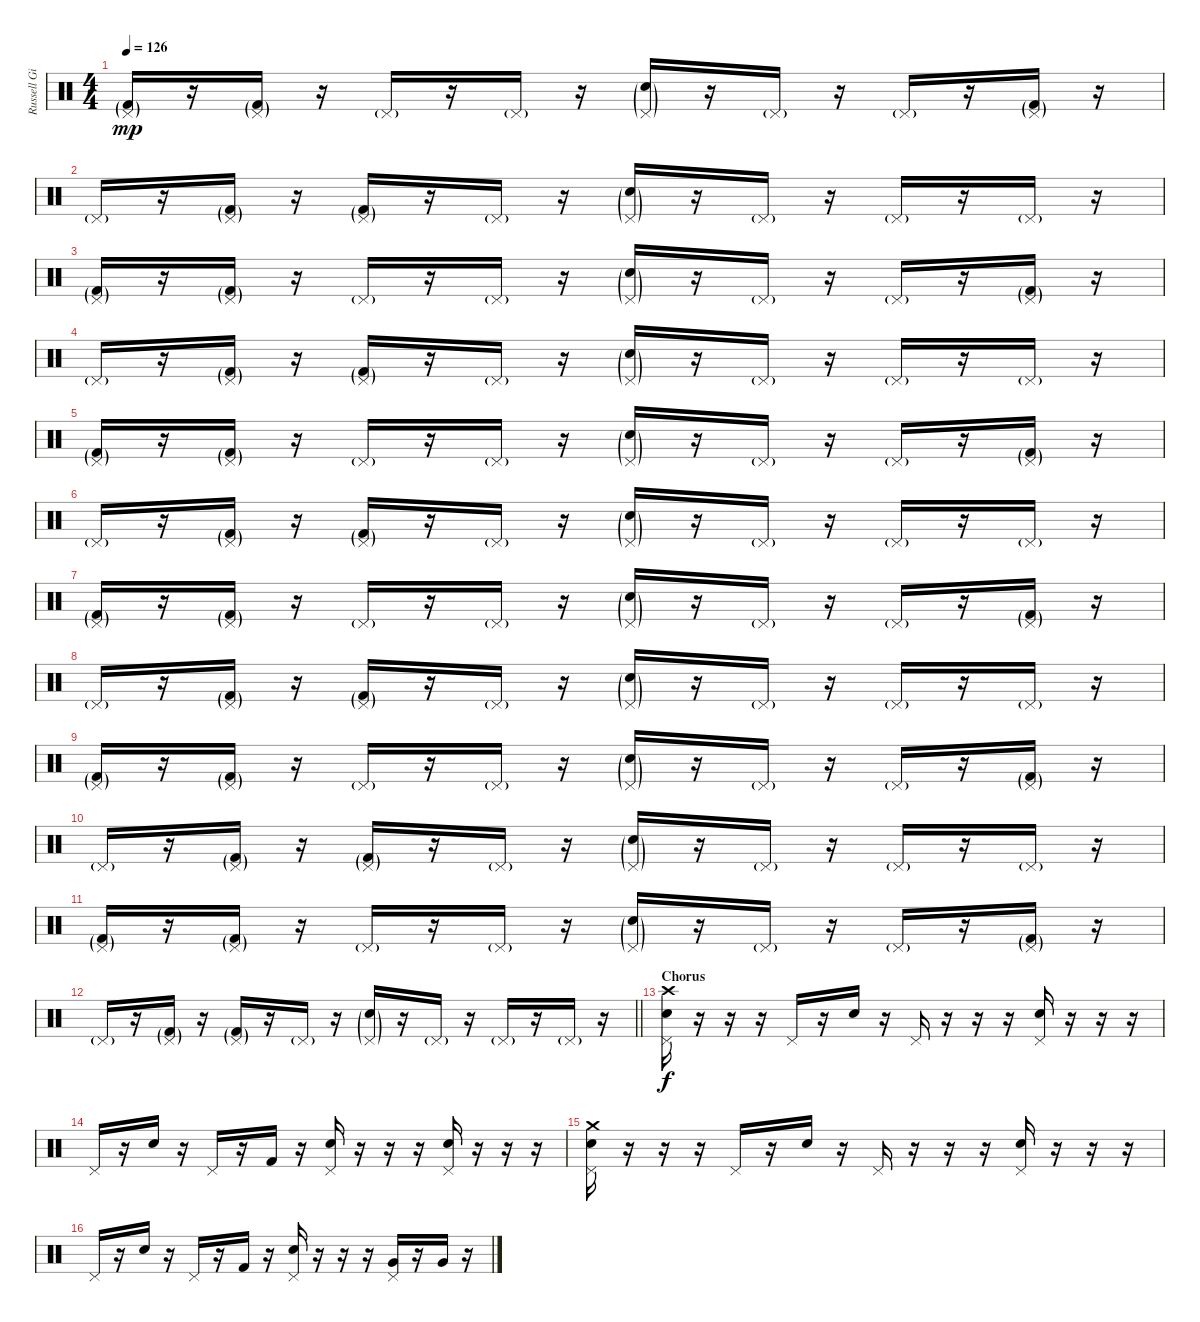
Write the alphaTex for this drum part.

\track ("Russell Gilbrook - Drums" "Russell Gi") {instrument percussion}
\staff {score}
\articulation defaults
\ts (4 4)
\tempo 126
\clef neutral
\ks c
("Pedal Hi-Hat (hit)"{g} "Kick (hit) 2"{g}).16{dy mp} r.16 ("Pedal Hi-Hat (hit)"{g} "Kick (hit) 2"{g}).16 r.16 "Pedal Hi-Hat (hit)"{g}.16 r.16 "Pedal Hi-Hat (hit)"{g}.16 r.16 ("Pedal Hi-Hat (hit)"{g} "Snare (hit) 2"{g}).16 r.16 "Pedal Hi-Hat (hit)"{g}.16 r.16 "Pedal Hi-Hat (hit)"{g}.16 r.16 ("Pedal Hi-Hat (hit)"{g} "Kick (hit) 2"{g}).16 r.16 |
"Pedal Hi-Hat (hit)"{g}.16 r.16 ("Pedal Hi-Hat (hit)"{g} "Kick (hit) 2"{g}).16 r.16 ("Pedal Hi-Hat (hit)"{g} "Kick (hit) 2"{g}).16 r.16 "Pedal Hi-Hat (hit)"{g}.16 r.16 ("Pedal Hi-Hat (hit)"{g} "Snare (hit) 2"{g}).16 r.16 "Pedal Hi-Hat (hit)"{g}.16 r.16 "Pedal Hi-Hat (hit)"{g}.16 r.16 "Pedal Hi-Hat (hit)"{g}.16 r.16 |
("Pedal Hi-Hat (hit)"{g} "Kick (hit) 2"{g}).16 r.16 ("Pedal Hi-Hat (hit)"{g} "Kick (hit) 2"{g}).16 r.16 "Pedal Hi-Hat (hit)"{g}.16 r.16 "Pedal Hi-Hat (hit)"{g}.16 r.16 ("Pedal Hi-Hat (hit)"{g} "Snare (hit) 2"{g}).16 r.16 "Pedal Hi-Hat (hit)"{g}.16 r.16 "Pedal Hi-Hat (hit)"{g}.16 r.16 ("Pedal Hi-Hat (hit)"{g} "Kick (hit) 2"{g}).16 r.16 |
"Pedal Hi-Hat (hit)"{g}.16 r.16 ("Pedal Hi-Hat (hit)"{g} "Kick (hit) 2"{g}).16 r.16 ("Pedal Hi-Hat (hit)"{g} "Kick (hit) 2"{g}).16 r.16 "Pedal Hi-Hat (hit)"{g}.16 r.16 ("Pedal Hi-Hat (hit)"{g} "Snare (hit) 2"{g}).16 r.16 "Pedal Hi-Hat (hit)"{g}.16 r.16 "Pedal Hi-Hat (hit)"{g}.16 r.16 "Pedal Hi-Hat (hit)"{g}.16 r.16 |
("Pedal Hi-Hat (hit)"{g} "Kick (hit) 2"{g}).16 r.16 ("Pedal Hi-Hat (hit)"{g} "Kick (hit) 2"{g}).16 r.16 "Pedal Hi-Hat (hit)"{g}.16 r.16 "Pedal Hi-Hat (hit)"{g}.16 r.16 ("Pedal Hi-Hat (hit)"{g} "Snare (hit) 2"{g}).16 r.16 "Pedal Hi-Hat (hit)"{g}.16 r.16 "Pedal Hi-Hat (hit)"{g}.16 r.16 ("Pedal Hi-Hat (hit)"{g} "Kick (hit) 2"{g}).16 r.16 |
"Pedal Hi-Hat (hit)"{g}.16 r.16 ("Pedal Hi-Hat (hit)"{g} "Kick (hit) 2"{g}).16 r.16 ("Pedal Hi-Hat (hit)"{g} "Kick (hit) 2"{g}).16 r.16 "Pedal Hi-Hat (hit)"{g}.16 r.16 ("Pedal Hi-Hat (hit)"{g} "Snare (hit) 2"{g}).16 r.16 "Pedal Hi-Hat (hit)"{g}.16 r.16 "Pedal Hi-Hat (hit)"{g}.16 r.16 "Pedal Hi-Hat (hit)"{g}.16 r.16 |
("Pedal Hi-Hat (hit)"{g} "Kick (hit) 2"{g}).16 r.16 ("Pedal Hi-Hat (hit)"{g} "Kick (hit) 2"{g}).16 r.16 "Pedal Hi-Hat (hit)"{g}.16 r.16 "Pedal Hi-Hat (hit)"{g}.16 r.16 ("Pedal Hi-Hat (hit)"{g} "Snare (hit) 2"{g}).16 r.16 "Pedal Hi-Hat (hit)"{g}.16 r.16 "Pedal Hi-Hat (hit)"{g}.16 r.16 ("Pedal Hi-Hat (hit)"{g} "Kick (hit) 2"{g}).16 r.16 |
"Pedal Hi-Hat (hit)"{g}.16 r.16 ("Pedal Hi-Hat (hit)"{g} "Kick (hit) 2"{g}).16 r.16 ("Pedal Hi-Hat (hit)"{g} "Kick (hit) 2"{g}).16 r.16 "Pedal Hi-Hat (hit)"{g}.16 r.16 ("Pedal Hi-Hat (hit)"{g} "Snare (hit) 2"{g}).16 r.16 "Pedal Hi-Hat (hit)"{g}.16 r.16 "Pedal Hi-Hat (hit)"{g}.16 r.16 "Pedal Hi-Hat (hit)"{g}.16 r.16 |
("Pedal Hi-Hat (hit)"{g} "Kick (hit) 2"{g}).16 r.16 ("Pedal Hi-Hat (hit)"{g} "Kick (hit) 2"{g}).16 r.16 "Pedal Hi-Hat (hit)"{g}.16 r.16 "Pedal Hi-Hat (hit)"{g}.16 r.16 ("Pedal Hi-Hat (hit)"{g} "Snare (hit) 2"{g}).16 r.16 "Pedal Hi-Hat (hit)"{g}.16 r.16 "Pedal Hi-Hat (hit)"{g}.16 r.16 ("Pedal Hi-Hat (hit)"{g} "Kick (hit) 2"{g}).16 r.16 |
"Pedal Hi-Hat (hit)"{g}.16 r.16 ("Pedal Hi-Hat (hit)"{g} "Kick (hit) 2"{g}).16 r.16 ("Pedal Hi-Hat (hit)"{g} "Kick (hit) 2"{g}).16 r.16 "Pedal Hi-Hat (hit)"{g}.16 r.16 ("Pedal Hi-Hat (hit)"{g} "Snare (hit) 2"{g}).16 r.16 "Pedal Hi-Hat (hit)"{g}.16 r.16 "Pedal Hi-Hat (hit)"{g}.16 r.16 "Pedal Hi-Hat (hit)"{g}.16 r.16 |
("Pedal Hi-Hat (hit)"{g} "Kick (hit) 2"{g}).16 r.16 ("Pedal Hi-Hat (hit)"{g} "Kick (hit) 2"{g}).16 r.16 "Pedal Hi-Hat (hit)"{g}.16 r.16 "Pedal Hi-Hat (hit)"{g}.16 r.16 ("Pedal Hi-Hat (hit)"{g} "Snare (hit) 2"{g}).16 r.16 "Pedal Hi-Hat (hit)"{g}.16 r.16 "Pedal Hi-Hat (hit)"{g}.16 r.16 ("Pedal Hi-Hat (hit)"{g} "Kick (hit) 2"{g}).16 r.16 |
\barLineRight lightlight "Pedal Hi-Hat (hit)"{g}.16
r.16 ("Pedal Hi-Hat (hit)"{g} "Kick (hit) 2"{g}).16 r.16 ("Pedal Hi-Hat (hit)"{g} "Kick (hit) 2"{g}).16 r.16 "Pedal Hi-Hat (hit)"{g}.16 r.16 ("Pedal Hi-Hat (hit)"{g} "Snare (hit) 2"{g}).16 r.16 "Pedal Hi-Hat (hit)"{g}.16 r.16 "Pedal Hi-Hat (hit)"{g}.16 r.16 "Pedal Hi-Hat (hit)"{g}.16 r.16 |
\section ("" "Chorus")
("Crash high (hit)" "Pedal Hi-Hat (hit)" "Snare (hit) 2").16{dy f} r.16 r.16 r.16 "Pedal Hi-Hat (hit)".16 r.16 "Snare (hit) 2".16 r.16 "Pedal Hi-Hat (hit)".16 r.16 r.16 r.16 ("Pedal Hi-Hat (hit)" "Snare (hit) 2").16 r.16 r.16 r.16 |
"Pedal Hi-Hat (hit)".16 r.16 "Snare (hit) 2".16 r.16 "Pedal Hi-Hat (hit)".16 r.16 "Kick (hit) 2".16 r.16 ("Pedal Hi-Hat (hit)" "Snare (hit) 2").16 r.16 r.16 r.16 ("Pedal Hi-Hat (hit)" "Snare (hit) 2").16 r.16 r.16 r.16 |
("Crash medium (hit)" "Pedal Hi-Hat (hit)" "Snare (hit) 2").16 r.16 r.16 r.16 "Pedal Hi-Hat (hit)".16 r.16 "Snare (hit) 2".16 r.16 "Pedal Hi-Hat (hit)".16 r.16 r.16 r.16 ("Pedal Hi-Hat (hit)" "Snare (hit) 2").16 r.16 r.16 r.16 |
"Pedal Hi-Hat (hit)".16 r.16 "Snare (hit) 2".16 r.16 "Pedal Hi-Hat (hit)".16 r.16 "Kick (hit) 2".16 r.16 ("Pedal Hi-Hat (hit)" "Snare (hit) 2").16 r.16 r.16 r.16 ("Very Low Tom (hit)" "Pedal Hi-Hat (hit)").16 r.16 "Very Low Tom (hit)".16 r.16
